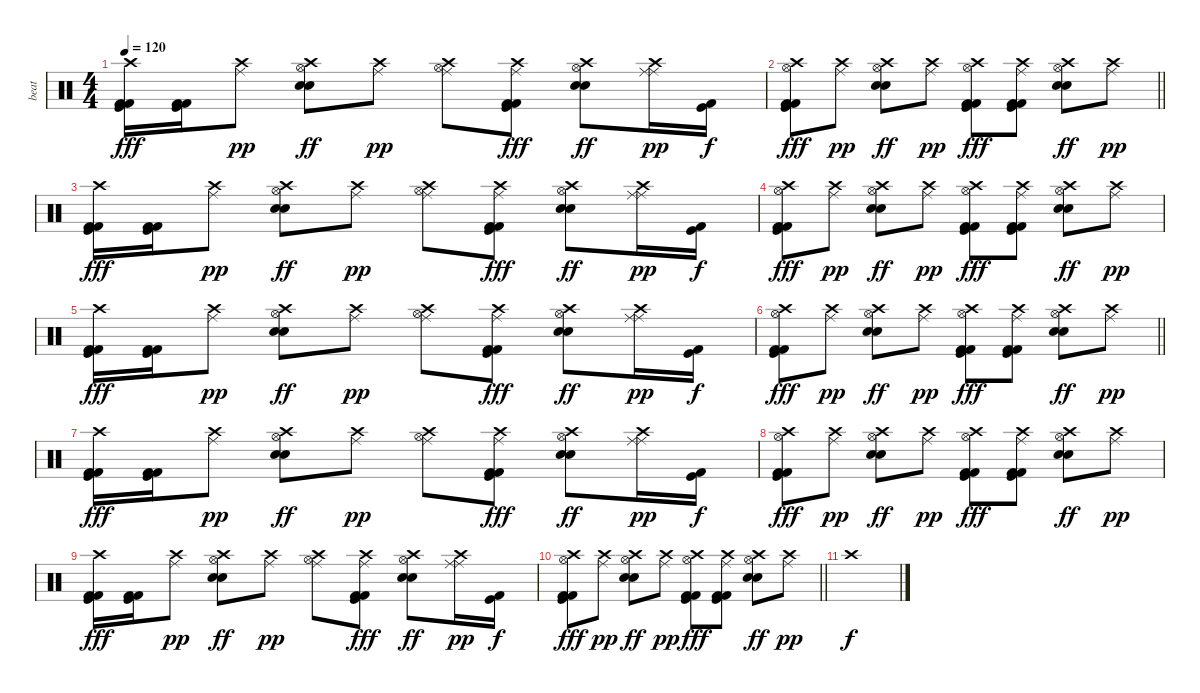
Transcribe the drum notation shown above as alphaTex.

\track ("beat" "beat") {instrument percussion}
\staff {score}
\articulation defaults
\ts (4 4)
\tempo 120
\clef neutral
\ks c
("Crash high (hit)" "Kick (hit) 2" "Kick (hit) 2" "Kick (hit)").16{dy fff} ("Kick (hit) 2" "Kick (hit) 2" "Kick (hit)").16 ("Crash high (hit)" "Ride (middle)").8{dy pp} ("Crash high (hit)" "Hi-Hat (open)" "Snare (hit) 2" "Electric Snare (hit)").8{dy ff} ("Crash high (hit)" "Ride (middle)").8{dy pp} ("Crash high (hit)" "Hi-Hat (open)" "Ride (middle)").8 ("Crash high (hit)" "Ride (middle)" "Kick (hit) 2" "Kick (hit) 2" "Kick (hit)").8{dy fff} ("Crash high (hit)" "Hi-Hat (open)" "Snare (hit) 2" "Electric Snare (hit)").8{dy ff} ("Crash high (hit)" "Ride (middle)" "Ride (middle)").16{dy pp} ("Kick (hit) 2" "Kick (hit)").16{dy f} |
\barLineRight lightlight
("Crash high (hit)" "Hi-Hat (open)" "Kick (hit) 2" "Kick (hit) 2" "Kick (hit)").8{dy fff} ("Crash high (hit)" "Ride (middle)").8{dy pp} ("Crash high (hit)" "Hi-Hat (open)" "Snare (hit) 2" "Electric Snare (hit)").8{dy ff} ("Crash high (hit)" "Ride (middle)").8{dy pp} ("Crash high (hit)" "Hi-Hat (open)" "Kick (hit) 2" "Kick (hit) 2" "Kick (hit)").8{dy fff} ("Crash high (hit)" "Ride (middle)" "Kick (hit) 2" "Kick (hit) 2" "Kick (hit)").8 ("Crash high (hit)" "Hi-Hat (open)" "Snare (hit) 2" "Electric Snare (hit)").8{dy ff} ("Crash high (hit)" "Ride (middle)").8{dy pp} |
("Crash high (hit)" "Kick (hit) 2" "Kick (hit) 2" "Kick (hit)").16{dy fff} ("Kick (hit) 2" "Kick (hit) 2" "Kick (hit)").16 ("Crash high (hit)" "Ride (middle)").8{dy pp} ("Crash high (hit)" "Hi-Hat (open)" "Snare (hit) 2" "Electric Snare (hit)").8{dy ff} ("Crash high (hit)" "Ride (middle)").8{dy pp} ("Crash high (hit)" "Hi-Hat (open)" "Ride (middle)").8 ("Crash high (hit)" "Ride (middle)" "Kick (hit) 2" "Kick (hit) 2" "Kick (hit)").8{dy fff} ("Crash high (hit)" "Hi-Hat (open)" "Snare (hit) 2" "Electric Snare (hit)").8{dy ff} ("Crash high (hit)" "Ride (middle)" "Ride (middle)").16{dy pp} ("Kick (hit) 2" "Kick (hit)").16{dy f} |
("Crash high (hit)" "Hi-Hat (open)" "Kick (hit) 2" "Kick (hit) 2" "Kick (hit)").8{dy fff} ("Crash high (hit)" "Ride (middle)").8{dy pp} ("Crash high (hit)" "Hi-Hat (open)" "Snare (hit) 2" "Electric Snare (hit)").8{dy ff} ("Crash high (hit)" "Ride (middle)").8{dy pp} ("Crash high (hit)" "Hi-Hat (open)" "Kick (hit) 2" "Kick (hit) 2" "Kick (hit)").8{dy fff} ("Crash high (hit)" "Ride (middle)" "Kick (hit) 2" "Kick (hit) 2" "Kick (hit)").8 ("Crash high (hit)" "Hi-Hat (open)" "Snare (hit) 2" "Electric Snare (hit)").8{dy ff} ("Crash high (hit)" "Ride (middle)").8{dy pp} |
("Crash high (hit)" "Kick (hit) 2" "Kick (hit) 2" "Kick (hit)").16{dy fff} ("Kick (hit) 2" "Kick (hit) 2" "Kick (hit)").16 ("Crash high (hit)" "Ride (middle)").8{dy pp} ("Crash high (hit)" "Hi-Hat (open)" "Snare (hit) 2" "Electric Snare (hit)").8{dy ff} ("Crash high (hit)" "Ride (middle)").8{dy pp} ("Crash high (hit)" "Hi-Hat (open)" "Ride (middle)").8 ("Crash high (hit)" "Ride (middle)" "Kick (hit) 2" "Kick (hit) 2" "Kick (hit)").8{dy fff} ("Crash high (hit)" "Hi-Hat (open)" "Snare (hit) 2" "Electric Snare (hit)").8{dy ff} ("Crash high (hit)" "Ride (middle)" "Ride (middle)").16{dy pp} ("Kick (hit) 2" "Kick (hit)").16{dy f} |
\barLineRight lightlight
("Crash high (hit)" "Hi-Hat (open)" "Kick (hit) 2" "Kick (hit) 2" "Kick (hit)").8{dy fff} ("Crash high (hit)" "Ride (middle)").8{dy pp} ("Crash high (hit)" "Hi-Hat (open)" "Snare (hit) 2" "Electric Snare (hit)").8{dy ff} ("Crash high (hit)" "Ride (middle)").8{dy pp} ("Crash high (hit)" "Hi-Hat (open)" "Kick (hit) 2" "Kick (hit) 2" "Kick (hit)").8{dy fff} ("Crash high (hit)" "Ride (middle)" "Kick (hit) 2" "Kick (hit) 2" "Kick (hit)").8 ("Crash high (hit)" "Hi-Hat (open)" "Snare (hit) 2" "Electric Snare (hit)").8{dy ff} ("Crash high (hit)" "Ride (middle)").8{dy pp} |
("Crash high (hit)" "Kick (hit) 2" "Kick (hit) 2" "Kick (hit)").16{dy fff} ("Kick (hit) 2" "Kick (hit) 2" "Kick (hit)").16 ("Crash high (hit)" "Ride (middle)").8{dy pp} ("Crash high (hit)" "Hi-Hat (open)" "Snare (hit) 2" "Electric Snare (hit)").8{dy ff} ("Crash high (hit)" "Ride (middle)").8{dy pp} ("Crash high (hit)" "Hi-Hat (open)" "Ride (middle)").8 ("Crash high (hit)" "Ride (middle)" "Kick (hit) 2" "Kick (hit) 2" "Kick (hit)").8{dy fff} ("Crash high (hit)" "Hi-Hat (open)" "Snare (hit) 2" "Electric Snare (hit)").8{dy ff} ("Crash high (hit)" "Ride (middle)" "Ride (middle)").16{dy pp} ("Kick (hit) 2" "Kick (hit)").16{dy f} |
("Crash high (hit)" "Hi-Hat (open)" "Kick (hit) 2" "Kick (hit) 2" "Kick (hit)").8{dy fff} ("Crash high (hit)" "Ride (middle)").8{dy pp} ("Crash high (hit)" "Hi-Hat (open)" "Snare (hit) 2" "Electric Snare (hit)").8{dy ff} ("Crash high (hit)" "Ride (middle)").8{dy pp} ("Crash high (hit)" "Hi-Hat (open)" "Kick (hit) 2" "Kick (hit) 2" "Kick (hit)").8{dy fff} ("Crash high (hit)" "Ride (middle)" "Kick (hit) 2" "Kick (hit) 2" "Kick (hit)").8 ("Crash high (hit)" "Hi-Hat (open)" "Snare (hit) 2" "Electric Snare (hit)").8{dy ff} ("Crash high (hit)" "Ride (middle)").8{dy pp} |
("Crash high (hit)" "Kick (hit) 2" "Kick (hit) 2" "Kick (hit)").16{dy fff} ("Kick (hit) 2" "Kick (hit) 2" "Kick (hit)").16 ("Crash high (hit)" "Ride (middle)").8{dy pp} ("Crash high (hit)" "Hi-Hat (open)" "Snare (hit) 2" "Electric Snare (hit)").8{dy ff} ("Crash high (hit)" "Ride (middle)").8{dy pp} ("Crash high (hit)" "Hi-Hat (open)" "Ride (middle)").8 ("Crash high (hit)" "Ride (middle)" "Kick (hit) 2" "Kick (hit) 2" "Kick (hit)").8{dy fff} ("Crash high (hit)" "Hi-Hat (open)" "Snare (hit) 2" "Electric Snare (hit)").8{dy ff} ("Crash high (hit)" "Ride (middle)" "Ride (middle)").16{dy pp} ("Kick (hit) 2" "Kick (hit)").16{dy f} |
\barLineRight lightlight
("Crash high (hit)" "Hi-Hat (open)" "Kick (hit) 2" "Kick (hit) 2" "Kick (hit)").8{dy fff} ("Crash high (hit)" "Ride (middle)").8{dy pp} ("Crash high (hit)" "Hi-Hat (open)" "Snare (hit) 2" "Electric Snare (hit)").8{dy ff} ("Crash high (hit)" "Ride (middle)").8{dy pp} ("Crash high (hit)" "Hi-Hat (open)" "Kick (hit) 2" "Kick (hit) 2" "Kick (hit)").8{dy fff} ("Crash high (hit)" "Ride (middle)" "Kick (hit) 2" "Kick (hit) 2" "Kick (hit)").8 ("Crash high (hit)" "Hi-Hat (open)" "Snare (hit) 2" "Electric Snare (hit)").8{dy ff} ("Crash high (hit)" "Ride (middle)").8{dy pp} |
"Crash high (hit)".1{dy f}
